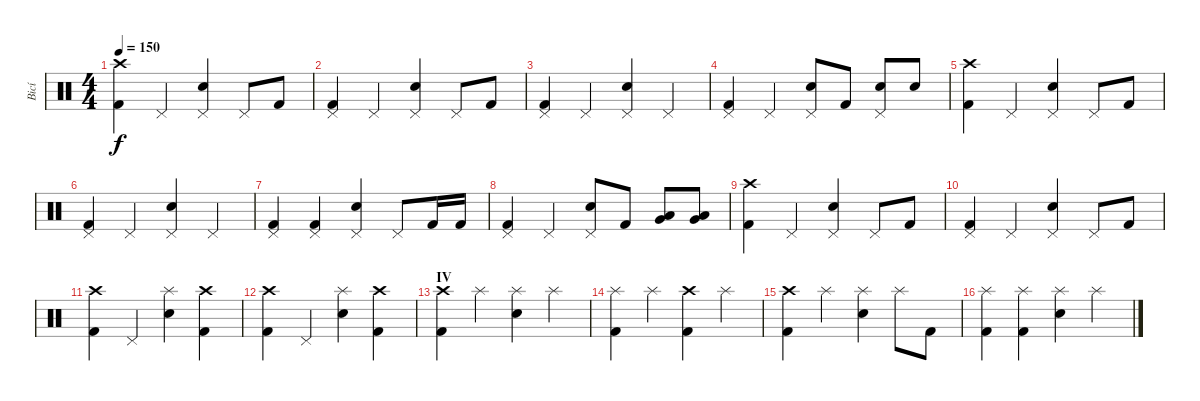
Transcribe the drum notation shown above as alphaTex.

\track ("Bicí" "Bicí") {instrument percussion}
\staff {score}
\articulation defaults
\ts (4 4)
\tempo 150
\clef neutral
\ks c
("Crash high (hit)" "Kick (hit) 2").4{dy f} "Pedal Hi-Hat (hit)".4 ("Pedal Hi-Hat (hit)" "Electric Snare (hit)").4 "Pedal Hi-Hat (hit)".8 "Kick (hit) 2".8 |
("Pedal Hi-Hat (hit)" "Kick (hit) 2").4 "Pedal Hi-Hat (hit)".4 ("Pedal Hi-Hat (hit)" "Electric Snare (hit)").4 "Pedal Hi-Hat (hit)".8 "Kick (hit) 2".8 |
("Pedal Hi-Hat (hit)" "Kick (hit) 2").4 "Pedal Hi-Hat (hit)".4 ("Pedal Hi-Hat (hit)" "Electric Snare (hit)").4 "Pedal Hi-Hat (hit)".4 |
("Pedal Hi-Hat (hit)" "Kick (hit) 2").4 "Pedal Hi-Hat (hit)".4 ("Pedal Hi-Hat (hit)" "Electric Snare (hit)").8 "Kick (hit) 2".8 ("Pedal Hi-Hat (hit)" "Electric Snare (hit)").8 "Electric Snare (hit)".8 |
("Crash high (hit)" "Kick (hit) 2").4 "Pedal Hi-Hat (hit)".4 ("Pedal Hi-Hat (hit)" "Electric Snare (hit)").4 "Pedal Hi-Hat (hit)".8 "Kick (hit) 2".8 |
("Pedal Hi-Hat (hit)" "Kick (hit) 2").4 "Pedal Hi-Hat (hit)".4 ("Pedal Hi-Hat (hit)" "Electric Snare (hit)").4 "Pedal Hi-Hat (hit)".4 |
("Pedal Hi-Hat (hit)" "Kick (hit) 2").4 ("Pedal Hi-Hat (hit)" "Kick (hit) 2").4 ("Pedal Hi-Hat (hit)" "Electric Snare (hit)").4 "Pedal Hi-Hat (hit)".8 "Kick (hit) 2".16 "Kick (hit) 2".16 |
("Pedal Hi-Hat (hit)" "Kick (hit) 2").4 "Pedal Hi-Hat (hit)".4 ("Pedal Hi-Hat (hit)" "Electric Snare (hit)").8 "Kick (hit) 2".8 ("Low Floor Tom (hit)" "Very Low Tom (hit)").8{bd 60} ("Low Floor Tom (hit)" "Very Low Tom (hit)").8{bd 60} |
("Crash high (hit)" "Kick (hit) 2").4 "Pedal Hi-Hat (hit)".4 ("Pedal Hi-Hat (hit)" "Electric Snare (hit)").4 "Pedal Hi-Hat (hit)".8 "Kick (hit) 2".8 |
("Pedal Hi-Hat (hit)" "Kick (hit) 2").4 "Pedal Hi-Hat (hit)".4 ("Pedal Hi-Hat (hit)" "Electric Snare (hit)").4 "Pedal Hi-Hat (hit)".8 "Kick (hit) 2".8 |
("Crash high (hit)" "Kick (hit) 2").4 "Pedal Hi-Hat (hit)".4 ("Splash (hit)" "Electric Snare (hit)").4 ("Crash high (hit)" "Kick (hit) 2").4 |
("Crash high (hit)" "Kick (hit) 2").4 "Pedal Hi-Hat (hit)".4 ("Splash (hit)" "Electric Snare (hit)").4 ("Crash high (hit)" "Kick (hit) 2").4 |
\section ("" "IV")
("Crash high (hit)" "Kick (hit) 2").4 "Splash (hit)".4 ("Splash (hit)" "Electric Snare (hit)").4 "Splash (hit)".4 |
("Splash (hit)" "Kick (hit) 2").4 "Splash (hit)".4 ("Crash high (hit)" "Kick (hit) 2").4 "Splash (hit)".4 |
("Crash high (hit)" "Kick (hit) 2").4 "Splash (hit)".4 ("Splash (hit)" "Electric Snare (hit)").4 "Splash (hit)".8 "Kick (hit) 2".8 |
("Splash (hit)" "Kick (hit) 2").4 ("Splash (hit)" "Kick (hit) 2").4 ("Splash (hit)" "Electric Snare (hit)").4 "Splash (hit)".4
